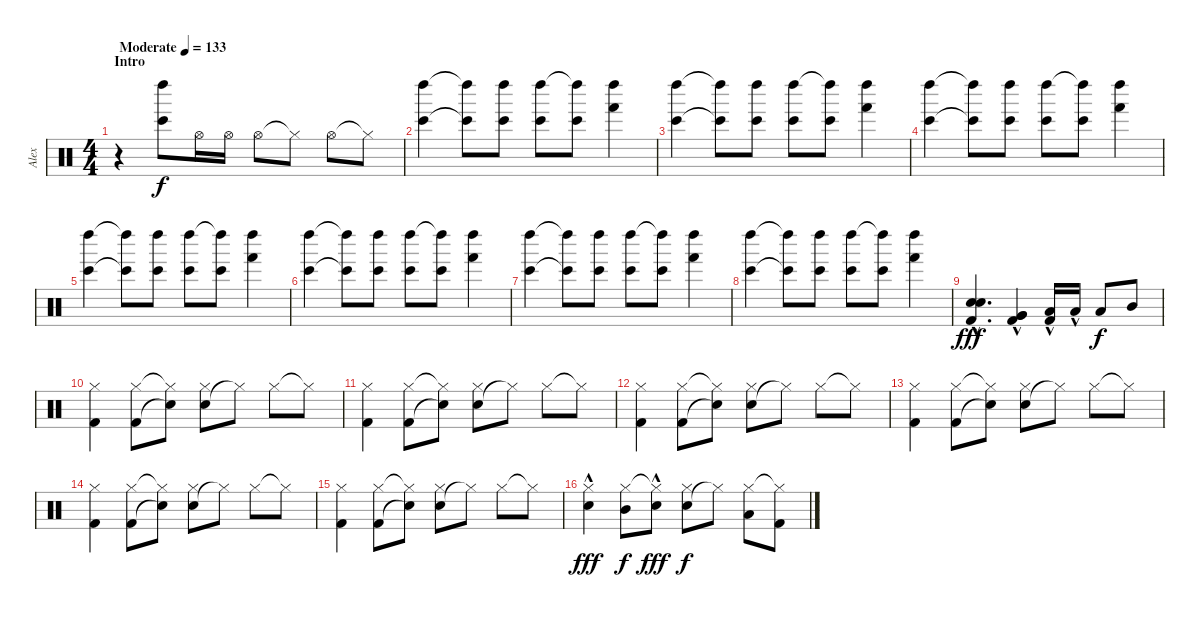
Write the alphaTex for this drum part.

\track ("Alex" "Alex") {instrument percussion}
\staff {score}
\articulation defaults
\ts (4 4)
\section ("" "Intro")
\tempo (133 "Moderate")
\clef neutral
\ks c
r.4{dy f} ("Bongo High (hit)" "Left Maraca (hit)").8 "Hi-Hat (open)".16 "Hi-Hat (open)".16 "Hi-Hat (open)".8 "Hi-Hat (closed)"{t}.8 "Hi-Hat (open)".8 "Hi-Hat (closed)"{t}.8 |
("Bongo High (hit)" "Left Maraca (hit)").4 ("Bongo High (hit)"{t} "Left Maraca (hit)"{t}).8 ("Bongo High (hit)" "Left Maraca (hit)").8 ("Bongo High (hit)" "Left Maraca (hit)").8 ("Bongo High (hit)" "Left Maraca (hit)"{t}).8 ("Hand (hit)" "Left Maraca (hit)").4 |
("Bongo High (hit)" "Left Maraca (hit)").4 ("Bongo High (hit)"{t} "Left Maraca (hit)"{t}).8 ("Bongo High (hit)" "Left Maraca (hit)").8 ("Bongo High (hit)" "Left Maraca (hit)").8 ("Bongo High (hit)" "Left Maraca (hit)"{t}).8 ("Hand (hit)" "Left Maraca (hit)").4 |
("Bongo High (hit)" "Left Maraca (hit)").4 ("Bongo High (hit)"{t} "Left Maraca (hit)"{t}).8 ("Bongo High (hit)" "Left Maraca (hit)").8 ("Bongo High (hit)" "Left Maraca (hit)").8 ("Bongo High (hit)" "Left Maraca (hit)"{t}).8 ("Hand (hit)" "Left Maraca (hit)").4 |
("Bongo High (hit)" "Left Maraca (hit)").4 ("Bongo High (hit)"{t} "Left Maraca (hit)"{t}).8 ("Bongo High (hit)" "Left Maraca (hit)").8 ("Bongo High (hit)" "Left Maraca (hit)").8 ("Bongo High (hit)" "Left Maraca (hit)"{t}).8 ("Hand (hit)" "Left Maraca (hit)").4 |
("Bongo High (hit)" "Left Maraca (hit)").4 ("Bongo High (hit)"{t} "Left Maraca (hit)"{t}).8 ("Bongo High (hit)" "Left Maraca (hit)").8 ("Bongo High (hit)" "Left Maraca (hit)").8 ("Bongo High (hit)" "Left Maraca (hit)"{t}).8 ("Hand (hit)" "Left Maraca (hit)").4 |
("Bongo High (hit)" "Left Maraca (hit)").4 ("Bongo High (hit)"{t} "Left Maraca (hit)"{t}).8 ("Bongo High (hit)" "Left Maraca (hit)").8 ("Bongo High (hit)" "Left Maraca (hit)").8 ("Bongo High (hit)" "Left Maraca (hit)"{t}).8 ("Hand (hit)" "Left Maraca (hit)").4 |
("Bongo High (hit)" "Left Maraca (hit)").4 ("Bongo High (hit)"{t} "Left Maraca (hit)"{t}).8 ("Bongo High (hit)" "Left Maraca (hit)").8 ("Bongo High (hit)" "Left Maraca (hit)").8 ("Bongo High (hit)" "Left Maraca (hit)"{t}).8 ("Hand (hit)" "Left Maraca (hit)").4 |
("Electric Snare (hit)"{hac} "Electric Snare (hit)"{hac} "Kick (hit) 2").4{d dy fff} ("Very Low Tom (hit)"{hac} "Very Low Tom (hit)" "Kick (hit) 2").4 ("Low Tom (hit)"{hac} "Kick (hit) 2").16 "Low Tom (hit)"{hac}.16 "Low Tom (hit)".8{dy f} "Mid Tom (hit)".8 |
("Kick (hit) 2" "Hi-Hat (closed)").4 ("Kick (hit) 2" "Hi-Hat (closed)").8 ("Electric Snare (hit)"{t} "Hi-Hat (closed)"{t}).8 ("Electric Snare (hit)" "Hi-Hat (closed)").8 "Hi-Hat (closed)"{t}.8 "Hi-Hat (closed)".8 "Hi-Hat (closed)"{t}.8 |
("Kick (hit) 2" "Hi-Hat (closed)").4 ("Kick (hit) 2" "Hi-Hat (closed)").8 ("Electric Snare (hit)"{t} "Hi-Hat (closed)"{t}).8 ("Electric Snare (hit)" "Hi-Hat (closed)").8 "Hi-Hat (closed)"{t}.8 "Hi-Hat (closed)".8 "Hi-Hat (closed)"{t}.8 |
("Kick (hit) 2" "Hi-Hat (closed)").4 ("Kick (hit) 2" "Hi-Hat (closed)").8 ("Electric Snare (hit)"{t} "Hi-Hat (closed)"{t}).8 ("Electric Snare (hit)" "Hi-Hat (closed)").8 "Hi-Hat (closed)"{t}.8 "Hi-Hat (closed)".8 "Hi-Hat (closed)"{t}.8 |
("Kick (hit) 2" "Hi-Hat (closed)").4 ("Kick (hit) 2" "Hi-Hat (closed)").8 ("Electric Snare (hit)"{t} "Hi-Hat (closed)"{t}).8 ("Electric Snare (hit)" "Hi-Hat (closed)").8 "Hi-Hat (closed)"{t}.8 "Hi-Hat (closed)".8 "Hi-Hat (closed)"{t}.8 |
("Kick (hit) 2" "Hi-Hat (closed)").4 ("Kick (hit) 2" "Hi-Hat (closed)").8 ("Electric Snare (hit)"{t} "Hi-Hat (closed)"{t}).8 ("Electric Snare (hit)" "Hi-Hat (closed)").8 "Hi-Hat (closed)"{t}.8 "Hi-Hat (closed)".8 "Hi-Hat (closed)"{t}.8 |
("Kick (hit) 2" "Hi-Hat (closed)").4 ("Kick (hit) 2" "Hi-Hat (closed)").8 ("Electric Snare (hit)"{t} "Hi-Hat (closed)"{t}).8 ("Electric Snare (hit)" "Hi-Hat (closed)").8 "Hi-Hat (closed)"{t}.8 "Hi-Hat (closed)".8 "Hi-Hat (closed)"{t}.8 |
("Electric Snare (hit)"{hac} "Hi-Hat (closed)").4{dy fff} ("Mid Tom (hit)" "Hi-Hat (closed)").8{dy f} ("Electric Snare (hit)"{hac} "Hi-Hat (closed)"{t}).8{dy fff} ("Electric Snare (hit)" "Hi-Hat (closed)").8{dy f} "Hi-Hat (closed)"{t}.8 ("Low Tom (hit)" "Hi-Hat (closed)").8 ("Kick (hit) 2" "Hi-Hat (closed)"{t}).8
